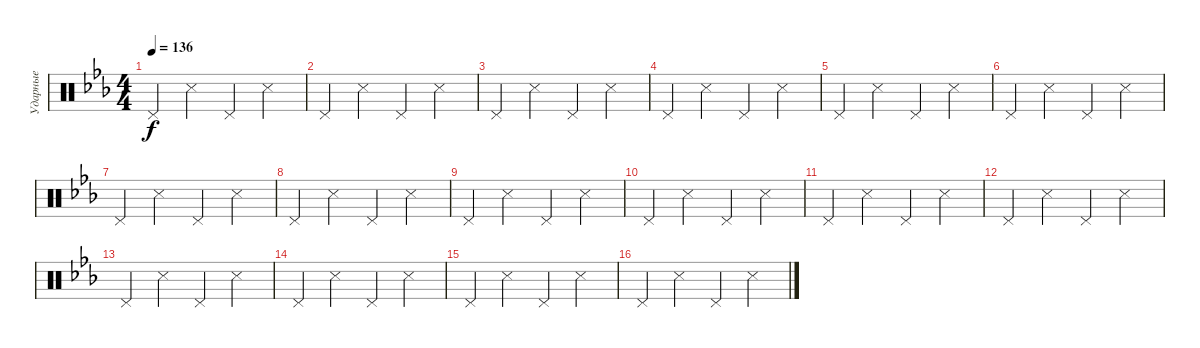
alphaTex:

\track ("Ударные" "Ударные") {instrument percussion}
\staff {score}
\articulation defaults
\ts (4 4)
\tempo 136
\clef neutral
\ks cminor "Pedal Hi-Hat (hit)".4{dy f} "Snare (side stick) 3".4 "Pedal Hi-Hat (hit)".4 "Snare (side stick) 3".4
|
"Pedal Hi-Hat (hit)".4 "Snare (side stick) 3".4 "Pedal Hi-Hat (hit)".4 "Snare (side stick) 3".4 |
"Pedal Hi-Hat (hit)".4 "Snare (side stick) 3".4 "Pedal Hi-Hat (hit)".4 "Snare (side stick) 3".4 |
"Pedal Hi-Hat (hit)".4 "Snare (side stick) 3".4 "Pedal Hi-Hat (hit)".4 "Snare (side stick) 3".4 |
"Pedal Hi-Hat (hit)".4 "Snare (side stick) 3".4 "Pedal Hi-Hat (hit)".4 "Snare (side stick) 3".4 |
"Pedal Hi-Hat (hit)".4 "Snare (side stick) 3".4 "Pedal Hi-Hat (hit)".4 "Snare (side stick) 3".4 |
"Pedal Hi-Hat (hit)".4 "Snare (side stick) 3".4 "Pedal Hi-Hat (hit)".4 "Snare (side stick) 3".4 |
"Pedal Hi-Hat (hit)".4 "Snare (side stick) 3".4 "Pedal Hi-Hat (hit)".4 "Snare (side stick) 3".4 |
"Pedal Hi-Hat (hit)".4 "Snare (side stick) 3".4 "Pedal Hi-Hat (hit)".4 "Snare (side stick) 3".4 |
"Pedal Hi-Hat (hit)".4 "Snare (side stick) 3".4 "Pedal Hi-Hat (hit)".4 "Snare (side stick) 3".4 |
"Pedal Hi-Hat (hit)".4 "Snare (side stick) 3".4 "Pedal Hi-Hat (hit)".4 "Snare (side stick) 3".4 |
"Pedal Hi-Hat (hit)".4 "Snare (side stick) 3".4 "Pedal Hi-Hat (hit)".4 "Snare (side stick) 3".4 |
"Pedal Hi-Hat (hit)".4 "Snare (side stick) 3".4 "Pedal Hi-Hat (hit)".4 "Snare (side stick) 3".4 |
"Pedal Hi-Hat (hit)".4 "Snare (side stick) 3".4 "Pedal Hi-Hat (hit)".4 "Snare (side stick) 3".4 |
"Pedal Hi-Hat (hit)".4 "Snare (side stick) 3".4 "Pedal Hi-Hat (hit)".4 "Snare (side stick) 3".4 |
"Pedal Hi-Hat (hit)".4 "Snare (side stick) 3".4 "Pedal Hi-Hat (hit)".4 "Snare (side stick) 3".4
